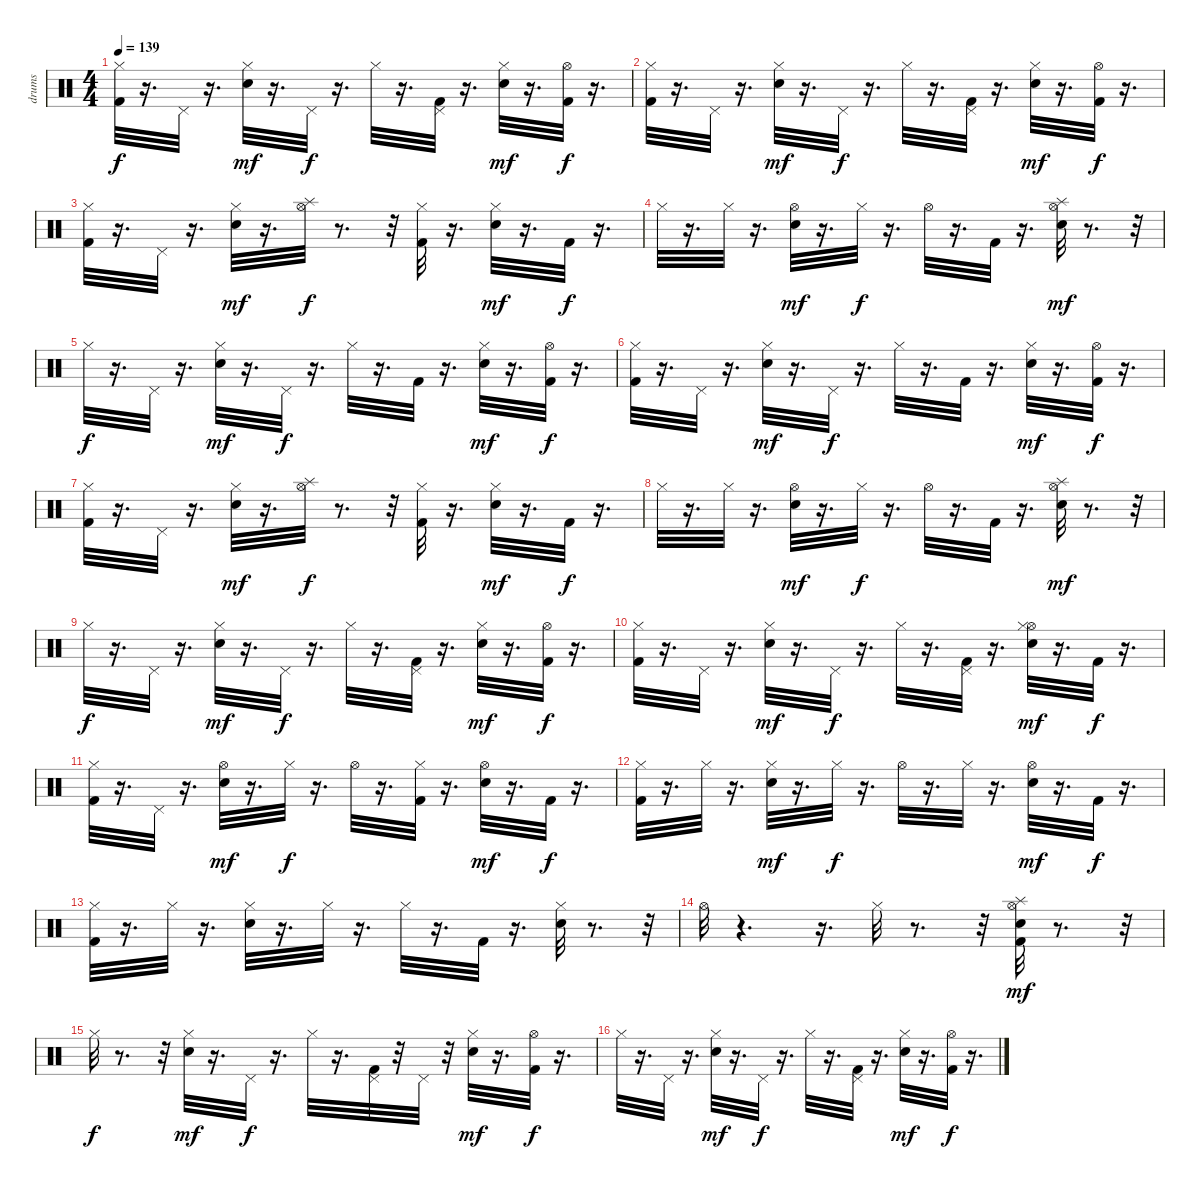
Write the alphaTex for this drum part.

\track ("drums" "drums") {instrument percussion}
\staff {score}
\articulation defaults
\ts (4 4)
\tempo 139
\clef neutral
\ks c
("Kick (hit) 2" "Hi-Hat (closed)").32{dy f} r.16{d} "Pedal Hi-Hat (hit)".32 r.16{d} ("Snare (hit) 2" "Hi-Hat (closed)").32{dy mf} r.16{d} "Pedal Hi-Hat (hit)".32{dy f} r.16{d} "Hi-Hat (closed)".32 r.16{d} ("Pedal Hi-Hat (hit)" "Kick (hit) 2").32 r.16{d} ("Snare (hit) 2" "Hi-Hat (closed)").32{dy mf} r.16{d} ("Kick (hit) 2" "Hi-Hat (open)").32{dy f} r.16{d} |
("Kick (hit) 2" "Hi-Hat (closed)").32 r.16{d} "Pedal Hi-Hat (hit)".32 r.16{d} ("Snare (hit) 2" "Hi-Hat (closed)").32{dy mf} r.16{d} "Pedal Hi-Hat (hit)".32{dy f} r.16{d} "Hi-Hat (closed)".32 r.16{d} ("Pedal Hi-Hat (hit)" "Kick (hit) 2").32 r.16{d} ("Snare (hit) 2" "Hi-Hat (closed)").32{dy mf} r.16{d} ("Kick (hit) 2" "Hi-Hat (open)").32{dy f} r.16{d} |
("Kick (hit) 2" "Hi-Hat (closed)").32 r.16{d} "Pedal Hi-Hat (hit)".32 r.16{d} ("Snare (hit) 2" "Hi-Hat (closed)").32{dy mf} r.16{d} ("Hi-Hat (open)" "Splash (hit)").32{dy f} r.8{d} r.32 ("Hi-Hat (closed)" "Kick (hit) 2").32 r.16{d} ("Hi-Hat (closed)" "Snare (hit) 2").32{dy mf} r.16{d} "Kick (hit) 2".32{dy f} r.16{d} |
"Hi-Hat (closed)".32 r.16{d} "Hi-Hat (closed)".32 r.16{d} ("Hi-Hat (open)" "Snare (hit) 2").32{dy mf} r.16{d} "Hi-Hat (closed)".32{dy f} r.16{d} "Hi-Hat (open)".32 r.16{d} "Kick (hit) 2".32 r.16{d} ("Hi-Hat (open)" "Snare (hit) 2" "Splash (hit)").32{dy mf} r.8{d} r.32 |
"Hi-Hat (closed)".32{dy f} r.16{d} "Pedal Hi-Hat (hit)".32 r.16{d} ("Hi-Hat (closed)" "Snare (hit) 2").32{dy mf} r.16{d} "Pedal Hi-Hat (hit)".32{dy f} r.16{d} "Hi-Hat (closed)".32 r.16{d} "Kick (hit) 2".32 r.16{d} ("Hi-Hat (closed)" "Snare (hit) 2").32{dy mf} r.16{d} ("Kick (hit) 2" "Hi-Hat (open)").32{dy f} r.16{d} |
("Hi-Hat (closed)" "Kick (hit) 2").32 r.16{d} "Pedal Hi-Hat (hit)".32 r.16{d} ("Snare (hit) 2" "Hi-Hat (closed)").32{dy mf} r.16{d} "Pedal Hi-Hat (hit)".32{dy f} r.16{d} "Hi-Hat (closed)".32 r.16{d} "Kick (hit) 2".32 r.16{d} ("Snare (hit) 2" "Hi-Hat (closed)").32{dy mf} r.16{d} ("Hi-Hat (open)" "Kick (hit) 2").32{dy f} r.16{d} |
("Kick (hit) 2" "Hi-Hat (closed)").32 r.16{d} "Pedal Hi-Hat (hit)".32 r.16{d} ("Hi-Hat (closed)" "Snare (hit) 2").32{dy mf} r.16{d} ("Hi-Hat (open)" "Splash (hit)").32{dy f} r.8{d} r.32 ("Hi-Hat (closed)" "Kick (hit) 2").32 r.16{d} ("Snare (hit) 2" "Hi-Hat (closed)").32{dy mf} r.16{d} "Kick (hit) 2".32{dy f} r.16{d} |
"Hi-Hat (closed)".32 r.16{d} "Hi-Hat (closed)".32 r.16{d} ("Hi-Hat (open)" "Snare (hit) 2").32{dy mf} r.16{d} "Hi-Hat (closed)".32{dy f} r.16{d} "Hi-Hat (open)".32 r.16{d} "Kick (hit) 2".32 r.16{d} ("Splash (hit)" "Hi-Hat (open)" "Snare (hit) 2").32{dy mf} r.8{d} r.32 |
"Hi-Hat (closed)".32{dy f} r.16{d} "Pedal Hi-Hat (hit)".32 r.16{d} ("Hi-Hat (closed)" "Snare (hit) 2").32{dy mf} r.16{d} "Pedal Hi-Hat (hit)".32{dy f} r.16{d} "Hi-Hat (closed)".32 r.16{d} ("Kick (hit) 2" "Pedal Hi-Hat (hit)").32 r.16{d} ("Snare (hit) 2" "Hi-Hat (closed)").32{dy mf} r.16{d} ("Hi-Hat (open)" "Kick (hit) 2").32{dy f} r.16{d} |
("Hi-Hat (closed)" "Kick (hit) 2").32 r.16{d} "Pedal Hi-Hat (hit)".32 r.16{d} ("Hi-Hat (closed)" "Snare (hit) 2").32{dy mf} r.16{d} "Pedal Hi-Hat (hit)".32{dy f} r.16{d} "Hi-Hat (closed)".32 r.16{d} ("Pedal Hi-Hat (hit)" "Kick (hit) 2").32 r.16{d} ("Snare (hit) 2" "Hi-Hat (open)" "Hi-Hat (closed)").32{dy mf} r.16{d} "Kick (hit) 2".32{dy f} r.16{d} |
("Hi-Hat (closed)" "Kick (hit) 2").32 r.16{d} "Pedal Hi-Hat (hit)".32 r.16{d} ("Hi-Hat (open)" "Snare (hit) 2").32{dy mf} r.16{d} "Hi-Hat (closed)".32{dy f} r.16{d} "Hi-Hat (open)".32 r.16{d} ("Kick (hit) 2" "Hi-Hat (closed)").32 r.16{d} ("Hi-Hat (open)" "Snare (hit) 2").32{dy mf} r.16{d} "Kick (hit) 2".32{dy f} r.16{d} |
("Hi-Hat (closed)" "Kick (hit) 2").32 r.16{d} "Hi-Hat (closed)".32 r.16{d} ("Snare (hit) 2" "Hi-Hat (closed)").32{dy mf} r.16{d} "Hi-Hat (closed)".32{dy f} r.16{d} "Hi-Hat (open)".32 r.16{d} "Hi-Hat (closed)".32 r.16{d} ("Hi-Hat (open)" "Snare (hit) 2").32{dy mf} r.16{d} "Kick (hit) 2".32{dy f} r.16{d} |
("Hi-Hat (closed)" "Kick (hit) 2").32 r.16{d} "Hi-Hat (closed)".32 r.16{d} ("Snare (hit) 2" "Hi-Hat (closed)").32 r.16{d} "Hi-Hat (closed)".32 r.16{d} "Hi-Hat (closed)".32 r.16{d} "Kick (hit) 2".32 r.16{d} ("Snare (hit) 2" "Hi-Hat (closed)").32 r.8{d} r.32 |
"Hi-Hat (open)".32 r.4{d} r.16{d} "Hi-Hat (closed)".32 r.8{d} r.32 ("Kick (hit) 2" "Snare (hit) 2" "Hi-Hat (open)" "Splash (hit)").32{dy mf} r.8{d} r.32 |
"Hi-Hat (closed)".32{dy f} r.8{d} r.32 ("Hi-Hat (closed)" "Snare (hit) 2").32{dy mf} r.16{d} "Pedal Hi-Hat (hit)".32{dy f} r.16{d} "Hi-Hat (closed)".32 r.16{d} ("Pedal Hi-Hat (hit)" "Kick (hit) 2").32 r.32 "Pedal Hi-Hat (hit)".32 r.32 ("Snare (hit) 2" "Hi-Hat (closed)").32{dy mf} r.16{d} ("Hi-Hat (open)" "Kick (hit) 2").32{dy f} r.16{d} |
"Hi-Hat (closed)".32 r.16{d} "Pedal Hi-Hat (hit)".32 r.16{d} ("Snare (hit) 2" "Hi-Hat (closed)").32{dy mf} r.16{d} "Pedal Hi-Hat (hit)".32{dy f} r.16{d} "Hi-Hat (closed)".32 r.16{d} ("Pedal Hi-Hat (hit)" "Kick (hit) 2").32 r.16{d} ("Snare (hit) 2" "Hi-Hat (closed)").32{dy mf} r.16{d} ("Kick (hit) 2" "Hi-Hat (open)").32{dy f} r.16{d}
